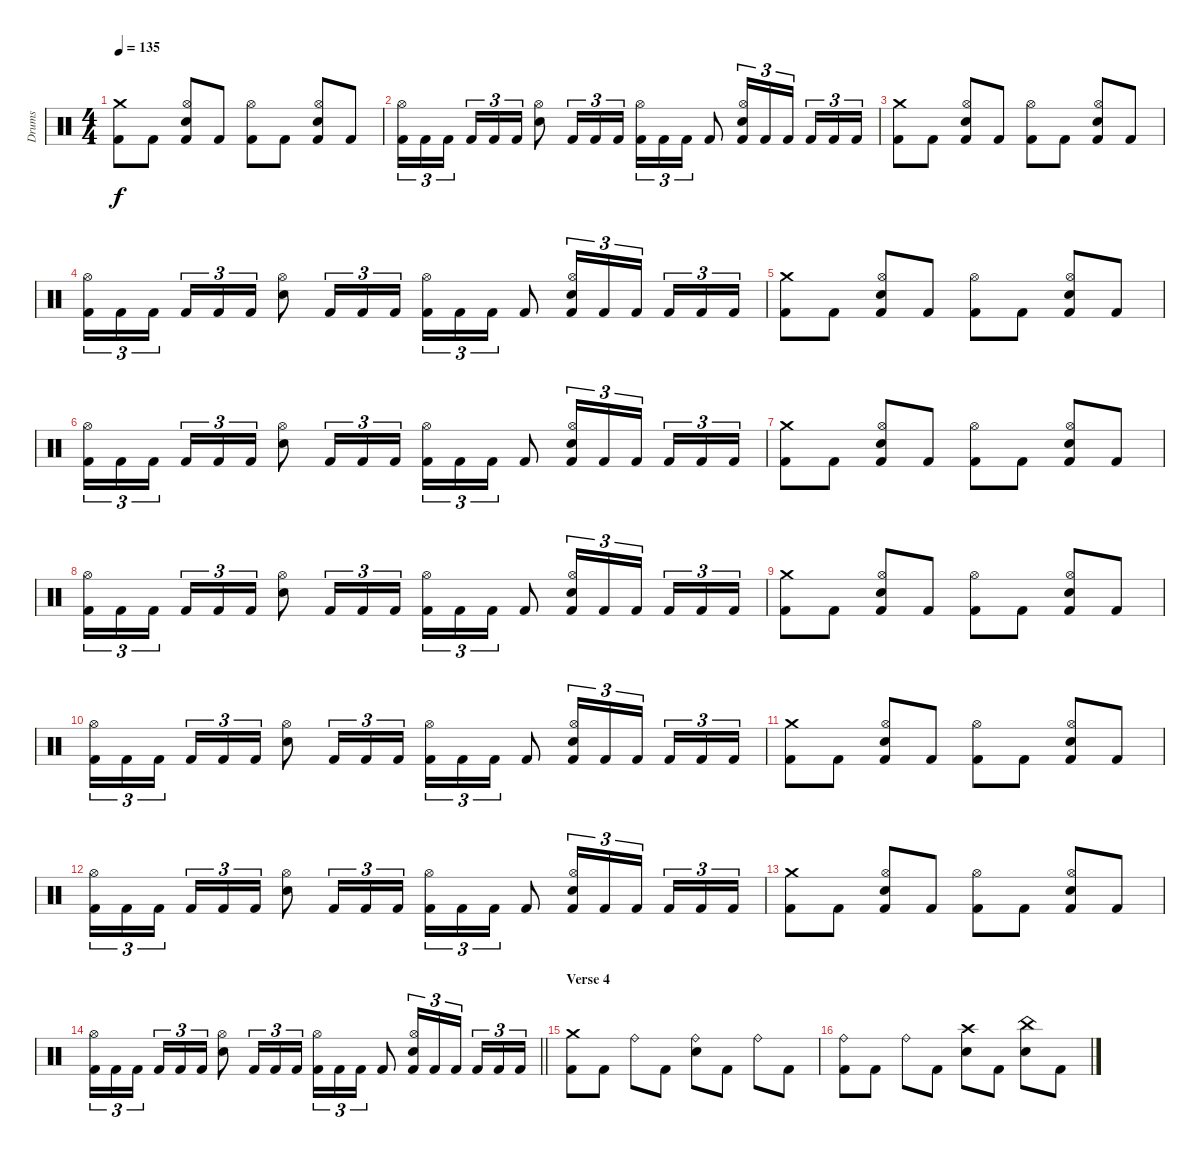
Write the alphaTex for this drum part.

\track ("Drums" "Drums") {instrument percussion}
\staff {score}
\articulation defaults
\ts (4 4)
\tempo 135
\clef neutral
\ks c
("Crash medium (hit)" "Kick (hit) 2").8{dy f} "Kick (hit) 2".8 ("Hi-Hat (open)" "Snare (hit) 2" "Kick (hit) 2").8 "Kick (hit) 2".8 ("Hi-Hat (open)" "Kick (hit) 2").8 "Kick (hit) 2".8 ("Hi-Hat (open)" "Snare (hit) 2" "Kick (hit) 2").8 "Kick (hit) 2".8 |
("Hi-Hat (open)" "Kick (hit) 2").16{tu (3 2)} "Kick (hit) 2".16{tu (3 2)} "Kick (hit) 2".16{tu (3 2) beam splitsecondary} "Kick (hit) 2".16{tu (3 2)} "Kick (hit) 2".16{tu (3 2)} "Kick (hit) 2".16{tu (3 2)} ("Hi-Hat (open)" "Snare (hit) 2").8 "Kick (hit) 2".16{tu (3 2)} "Kick (hit) 2".16{tu (3 2)} "Kick (hit) 2".16{tu (3 2)} ("Hi-Hat (open)" "Kick (hit) 2").16{tu (3 2)} "Kick (hit) 2".16{tu (3 2)} "Kick (hit) 2".16{tu (3 2)} "Kick (hit) 2".8 ("Hi-Hat (open)" "Snare (hit) 2" "Kick (hit) 2").16{tu (3 2)} "Kick (hit) 2".16{tu (3 2)} "Kick (hit) 2".16{tu (3 2) beam splitsecondary} "Kick (hit) 2".16{tu (3 2)} "Kick (hit) 2".16{tu (3 2)} "Kick (hit) 2".16{tu (3 2)} |
("Crash medium (hit)" "Kick (hit) 2").8 "Kick (hit) 2".8 ("Hi-Hat (open)" "Snare (hit) 2" "Kick (hit) 2").8 "Kick (hit) 2".8 ("Hi-Hat (open)" "Kick (hit) 2").8 "Kick (hit) 2".8 ("Hi-Hat (open)" "Snare (hit) 2" "Kick (hit) 2").8 "Kick (hit) 2".8 |
("Hi-Hat (open)" "Kick (hit) 2").16{tu (3 2)} "Kick (hit) 2".16{tu (3 2)} "Kick (hit) 2".16{tu (3 2) beam splitsecondary} "Kick (hit) 2".16{tu (3 2)} "Kick (hit) 2".16{tu (3 2)} "Kick (hit) 2".16{tu (3 2)} ("Hi-Hat (open)" "Snare (hit) 2").8 "Kick (hit) 2".16{tu (3 2)} "Kick (hit) 2".16{tu (3 2)} "Kick (hit) 2".16{tu (3 2)} ("Hi-Hat (open)" "Kick (hit) 2").16{tu (3 2)} "Kick (hit) 2".16{tu (3 2)} "Kick (hit) 2".16{tu (3 2)} "Kick (hit) 2".8 ("Hi-Hat (open)" "Snare (hit) 2" "Kick (hit) 2").16{tu (3 2)} "Kick (hit) 2".16{tu (3 2)} "Kick (hit) 2".16{tu (3 2) beam splitsecondary} "Kick (hit) 2".16{tu (3 2)} "Kick (hit) 2".16{tu (3 2)} "Kick (hit) 2".16{tu (3 2)} |
("Crash medium (hit)" "Kick (hit) 2").8 "Kick (hit) 2".8 ("Hi-Hat (open)" "Snare (hit) 2" "Kick (hit) 2").8 "Kick (hit) 2".8 ("Hi-Hat (open)" "Kick (hit) 2").8 "Kick (hit) 2".8 ("Hi-Hat (open)" "Snare (hit) 2" "Kick (hit) 2").8 "Kick (hit) 2".8 |
("Hi-Hat (open)" "Kick (hit) 2").16{tu (3 2)} "Kick (hit) 2".16{tu (3 2)} "Kick (hit) 2".16{tu (3 2) beam splitsecondary} "Kick (hit) 2".16{tu (3 2)} "Kick (hit) 2".16{tu (3 2)} "Kick (hit) 2".16{tu (3 2)} ("Hi-Hat (open)" "Snare (hit) 2").8 "Kick (hit) 2".16{tu (3 2)} "Kick (hit) 2".16{tu (3 2)} "Kick (hit) 2".16{tu (3 2)} ("Hi-Hat (open)" "Kick (hit) 2").16{tu (3 2)} "Kick (hit) 2".16{tu (3 2)} "Kick (hit) 2".16{tu (3 2)} "Kick (hit) 2".8 ("Hi-Hat (open)" "Snare (hit) 2" "Kick (hit) 2").16{tu (3 2)} "Kick (hit) 2".16{tu (3 2)} "Kick (hit) 2".16{tu (3 2) beam splitsecondary} "Kick (hit) 2".16{tu (3 2)} "Kick (hit) 2".16{tu (3 2)} "Kick (hit) 2".16{tu (3 2)} |
("Crash medium (hit)" "Kick (hit) 2").8 "Kick (hit) 2".8 ("Hi-Hat (open)" "Snare (hit) 2" "Kick (hit) 2").8 "Kick (hit) 2".8 ("Hi-Hat (open)" "Kick (hit) 2").8 "Kick (hit) 2".8 ("Hi-Hat (open)" "Snare (hit) 2" "Kick (hit) 2").8 "Kick (hit) 2".8 |
("Hi-Hat (open)" "Kick (hit) 2").16{tu (3 2)} "Kick (hit) 2".16{tu (3 2)} "Kick (hit) 2".16{tu (3 2) beam splitsecondary} "Kick (hit) 2".16{tu (3 2)} "Kick (hit) 2".16{tu (3 2)} "Kick (hit) 2".16{tu (3 2)} ("Hi-Hat (open)" "Snare (hit) 2").8 "Kick (hit) 2".16{tu (3 2)} "Kick (hit) 2".16{tu (3 2)} "Kick (hit) 2".16{tu (3 2)} ("Hi-Hat (open)" "Kick (hit) 2").16{tu (3 2)} "Kick (hit) 2".16{tu (3 2)} "Kick (hit) 2".16{tu (3 2)} "Kick (hit) 2".8 ("Hi-Hat (open)" "Snare (hit) 2" "Kick (hit) 2").16{tu (3 2)} "Kick (hit) 2".16{tu (3 2)} "Kick (hit) 2".16{tu (3 2) beam splitsecondary} "Kick (hit) 2".16{tu (3 2)} "Kick (hit) 2".16{tu (3 2)} "Kick (hit) 2".16{tu (3 2)} |
("Crash medium (hit)" "Kick (hit) 2").8 "Kick (hit) 2".8 ("Hi-Hat (open)" "Snare (hit) 2" "Kick (hit) 2").8 "Kick (hit) 2".8 ("Hi-Hat (open)" "Kick (hit) 2").8 "Kick (hit) 2".8 ("Hi-Hat (open)" "Snare (hit) 2" "Kick (hit) 2").8 "Kick (hit) 2".8 |
("Hi-Hat (open)" "Kick (hit) 2").16{tu (3 2)} "Kick (hit) 2".16{tu (3 2)} "Kick (hit) 2".16{tu (3 2) beam splitsecondary} "Kick (hit) 2".16{tu (3 2)} "Kick (hit) 2".16{tu (3 2)} "Kick (hit) 2".16{tu (3 2)} ("Hi-Hat (open)" "Snare (hit) 2").8 "Kick (hit) 2".16{tu (3 2)} "Kick (hit) 2".16{tu (3 2)} "Kick (hit) 2".16{tu (3 2)} ("Hi-Hat (open)" "Kick (hit) 2").16{tu (3 2)} "Kick (hit) 2".16{tu (3 2)} "Kick (hit) 2".16{tu (3 2)} "Kick (hit) 2".8 ("Hi-Hat (open)" "Snare (hit) 2" "Kick (hit) 2").16{tu (3 2)} "Kick (hit) 2".16{tu (3 2)} "Kick (hit) 2".16{tu (3 2) beam splitsecondary} "Kick (hit) 2".16{tu (3 2)} "Kick (hit) 2".16{tu (3 2)} "Kick (hit) 2".16{tu (3 2)} |
("Crash medium (hit)" "Kick (hit) 2").8 "Kick (hit) 2".8 ("Hi-Hat (open)" "Snare (hit) 2" "Kick (hit) 2").8 "Kick (hit) 2".8 ("Hi-Hat (open)" "Kick (hit) 2").8 "Kick (hit) 2".8 ("Hi-Hat (open)" "Snare (hit) 2" "Kick (hit) 2").8 "Kick (hit) 2".8 |
("Hi-Hat (open)" "Kick (hit) 2").16{tu (3 2)} "Kick (hit) 2".16{tu (3 2)} "Kick (hit) 2".16{tu (3 2) beam splitsecondary} "Kick (hit) 2".16{tu (3 2)} "Kick (hit) 2".16{tu (3 2)} "Kick (hit) 2".16{tu (3 2)} ("Hi-Hat (open)" "Snare (hit) 2").8 "Kick (hit) 2".16{tu (3 2)} "Kick (hit) 2".16{tu (3 2)} "Kick (hit) 2".16{tu (3 2)} ("Hi-Hat (open)" "Kick (hit) 2").16{tu (3 2)} "Kick (hit) 2".16{tu (3 2)} "Kick (hit) 2".16{tu (3 2)} "Kick (hit) 2".8 ("Hi-Hat (open)" "Snare (hit) 2" "Kick (hit) 2").16{tu (3 2)} "Kick (hit) 2".16{tu (3 2)} "Kick (hit) 2".16{tu (3 2) beam splitsecondary} "Kick (hit) 2".16{tu (3 2)} "Kick (hit) 2".16{tu (3 2)} "Kick (hit) 2".16{tu (3 2)} |
("Crash medium (hit)" "Kick (hit) 2").8 "Kick (hit) 2".8 ("Hi-Hat (open)" "Snare (hit) 2" "Kick (hit) 2").8 "Kick (hit) 2".8 ("Hi-Hat (open)" "Kick (hit) 2").8 "Kick (hit) 2".8 ("Hi-Hat (open)" "Snare (hit) 2" "Kick (hit) 2").8 "Kick (hit) 2".8 |
\barLineRight lightlight
("Hi-Hat (open)" "Kick (hit) 2").16{tu (3 2)} "Kick (hit) 2".16{tu (3 2)} "Kick (hit) 2".16{tu (3 2) beam splitsecondary} "Kick (hit) 2".16{tu (3 2)} "Kick (hit) 2".16{tu (3 2)} "Kick (hit) 2".16{tu (3 2)} ("Hi-Hat (open)" "Snare (hit) 2").8 "Kick (hit) 2".16{tu (3 2)} "Kick (hit) 2".16{tu (3 2)} "Kick (hit) 2".16{tu (3 2)} ("Hi-Hat (open)" "Kick (hit) 2").16{tu (3 2)} "Kick (hit) 2".16{tu (3 2)} "Kick (hit) 2".16{tu (3 2)} "Kick (hit) 2".8 ("Hi-Hat (open)" "Snare (hit) 2" "Kick (hit) 2").16{tu (3 2)} "Kick (hit) 2".16{tu (3 2)} "Kick (hit) 2".16{tu (3 2) beam splitsecondary} "Kick (hit) 2".16{tu (3 2)} "Kick (hit) 2".16{tu (3 2)} "Kick (hit) 2".16{tu (3 2)} |
\section ("" "Verse 4")
("Crash medium (hit)" "Kick (hit) 2").8 "Kick (hit) 2".8 "Ride (bell)".8 "Kick (hit) 2".8 ("Ride (bell)" "Snare (hit) 2").8 "Kick (hit) 2".8 "Ride (bell)".8 "Kick (hit) 2".8 |
("Ride (bell)" "Kick (hit) 2").8 "Kick (hit) 2".8 "Ride (bell)".8 "Kick (hit) 2".8 ("Crash high (hit)" "Snare (hit) 2").8 "Kick (hit) 2".8 ("China (hit)" "Snare (hit) 2").8 "Kick (hit) 2".8
